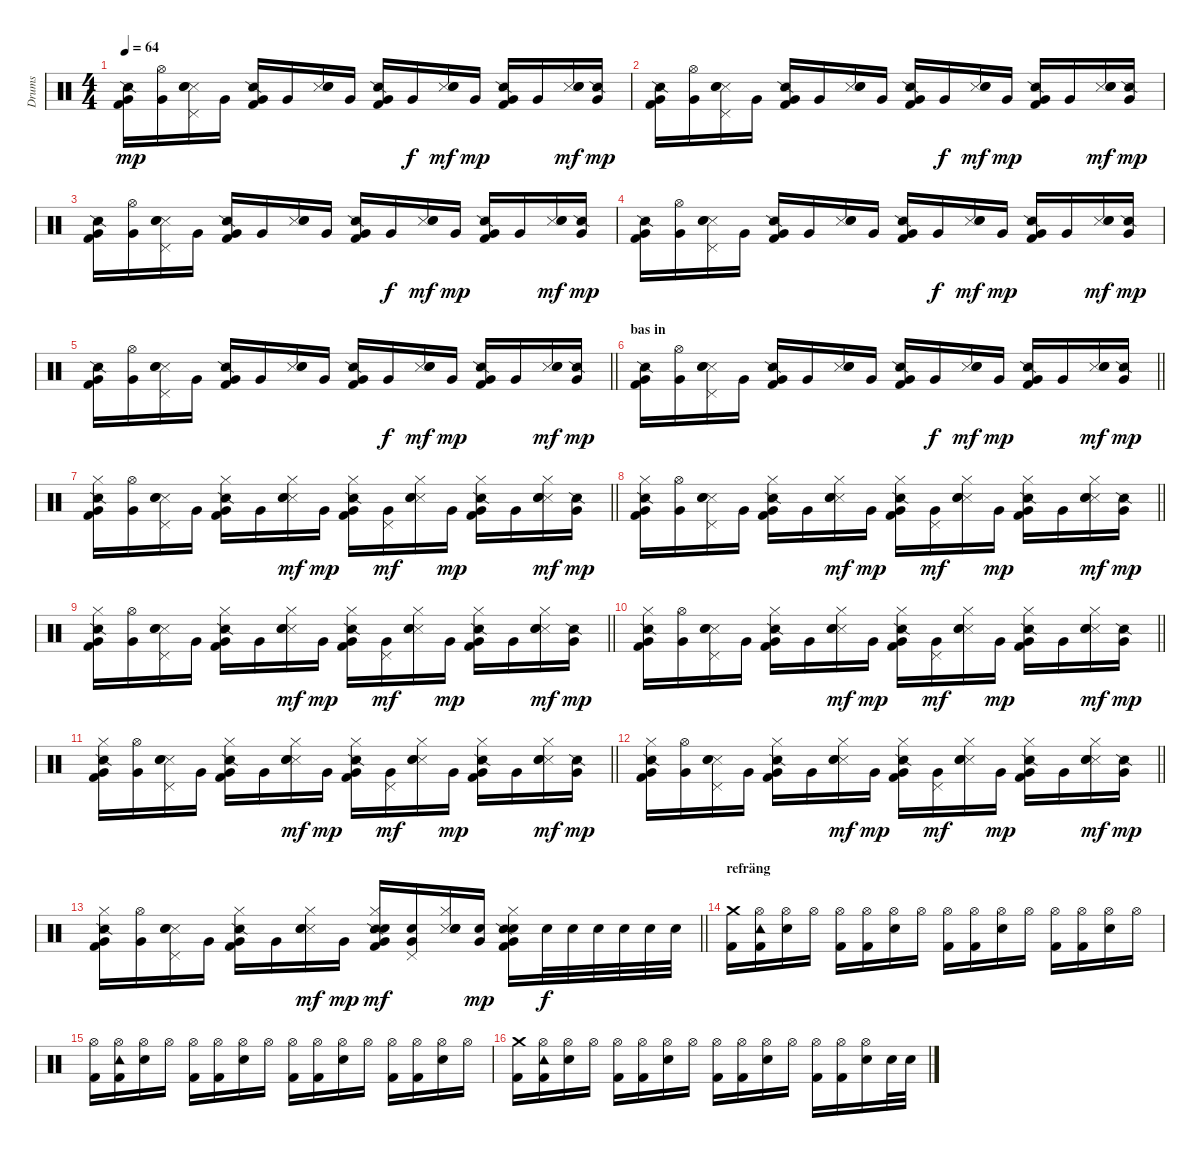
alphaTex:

\track ("Drums" "Drums") {instrument percussion}
\staff {score}
\articulation defaults
\ts (4 4)
\tempo 64
\clef neutral
\ks c
("Snare (side stick) 2" "Very Low Tom (hit)" "Kick (hit) 2").16{dy mp} ("Hi-Hat (open)" "Very Low Tom (hit)").16 ("Metronome (hit)" "Snare (hit) 2" "Hand Clap (hit)" "Pedal Hi-Hat (hit)").16 "Very Low Tom (hit)".16 ("Snare (side stick) 2" "Very Low Tom (hit)" "Kick (hit) 2").16 "Very Low Tom (hit)".16 ("Metronome (hit)" "Hand Clap (hit)" "Snare (hit) 2").16 "Very Low Tom (hit)".16 ("Snare (side stick) 2" "Very Low Tom (hit)" "Kick (hit) 2").16 "Very Low Tom (hit)".16{dy f} ("Metronome (hit)" "Hand Clap (hit)" "Snare (hit) 2").16{dy mf} "Very Low Tom (hit)".16{dy mp} ("Snare (side stick) 2" "Very Low Tom (hit)" "Kick (hit) 2").16 "Very Low Tom (hit)".16 ("Metronome (hit)" "Hand Clap (hit)" "Snare (hit) 2").16{dy mf} ("Snare (side stick) 2" "Very Low Tom (hit)").16{dy mp} |
("Snare (side stick) 2" "Very Low Tom (hit)" "Kick (hit) 2").16 ("Hi-Hat (open)" "Very Low Tom (hit)").16 ("Metronome (hit)" "Snare (hit) 2" "Hand Clap (hit)" "Pedal Hi-Hat (hit)").16 "Very Low Tom (hit)".16 ("Snare (side stick) 2" "Very Low Tom (hit)" "Kick (hit) 2").16 "Very Low Tom (hit)".16 ("Metronome (hit)" "Hand Clap (hit)" "Snare (hit) 2").16 "Very Low Tom (hit)".16 ("Snare (side stick) 2" "Very Low Tom (hit)" "Kick (hit) 2").16 "Very Low Tom (hit)".16{dy f} ("Metronome (hit)" "Hand Clap (hit)" "Snare (hit) 2").16{dy mf} "Very Low Tom (hit)".16{dy mp} ("Snare (side stick) 2" "Very Low Tom (hit)" "Kick (hit) 2").16 "Very Low Tom (hit)".16 ("Metronome (hit)" "Hand Clap (hit)" "Snare (hit) 2").16{dy mf} ("Snare (side stick) 2" "Very Low Tom (hit)").16{dy mp} |
("Snare (side stick) 2" "Very Low Tom (hit)" "Kick (hit) 2").16 ("Hi-Hat (open)" "Very Low Tom (hit)").16 ("Metronome (hit)" "Snare (hit) 2" "Hand Clap (hit)" "Pedal Hi-Hat (hit)").16 "Very Low Tom (hit)".16 ("Snare (side stick) 2" "Very Low Tom (hit)" "Kick (hit) 2").16 "Very Low Tom (hit)".16 ("Metronome (hit)" "Hand Clap (hit)" "Snare (hit) 2").16 "Very Low Tom (hit)".16 ("Snare (side stick) 2" "Very Low Tom (hit)" "Kick (hit) 2").16 "Very Low Tom (hit)".16{dy f} ("Metronome (hit)" "Hand Clap (hit)" "Snare (hit) 2").16{dy mf} "Very Low Tom (hit)".16{dy mp} ("Snare (side stick) 2" "Very Low Tom (hit)" "Kick (hit) 2").16 "Very Low Tom (hit)".16 ("Metronome (hit)" "Hand Clap (hit)" "Snare (hit) 2").16{dy mf} ("Snare (side stick) 2" "Very Low Tom (hit)").16{dy mp} |
("Snare (side stick) 2" "Very Low Tom (hit)" "Kick (hit) 2").16 ("Hi-Hat (open)" "Very Low Tom (hit)").16 ("Metronome (hit)" "Snare (hit) 2" "Hand Clap (hit)" "Pedal Hi-Hat (hit)").16 "Very Low Tom (hit)".16 ("Snare (side stick) 2" "Very Low Tom (hit)" "Kick (hit) 2").16 "Very Low Tom (hit)".16 ("Metronome (hit)" "Hand Clap (hit)" "Snare (hit) 2").16 "Very Low Tom (hit)".16 ("Snare (side stick) 2" "Very Low Tom (hit)" "Kick (hit) 2").16 "Very Low Tom (hit)".16{dy f} ("Metronome (hit)" "Hand Clap (hit)" "Snare (hit) 2").16{dy mf} "Very Low Tom (hit)".16{dy mp} ("Snare (side stick) 2" "Very Low Tom (hit)" "Kick (hit) 2").16 "Very Low Tom (hit)".16 ("Metronome (hit)" "Hand Clap (hit)" "Snare (hit) 2").16{dy mf} ("Snare (side stick) 2" "Very Low Tom (hit)").16{dy mp} |
\barLineRight lightlight
("Snare (side stick) 2" "Very Low Tom (hit)" "Kick (hit) 2").16 ("Hi-Hat (open)" "Very Low Tom (hit)").16 ("Metronome (hit)" "Snare (hit) 2" "Hand Clap (hit)" "Pedal Hi-Hat (hit)").16 "Very Low Tom (hit)".16 ("Snare (side stick) 2" "Very Low Tom (hit)" "Kick (hit) 2").16 "Very Low Tom (hit)".16 ("Metronome (hit)" "Hand Clap (hit)" "Snare (hit) 2").16 "Very Low Tom (hit)".16 ("Snare (side stick) 2" "Very Low Tom (hit)" "Kick (hit) 2").16 "Very Low Tom (hit)".16{dy f} ("Metronome (hit)" "Hand Clap (hit)" "Snare (hit) 2").16{dy mf} "Very Low Tom (hit)".16{dy mp} ("Snare (side stick) 2" "Very Low Tom (hit)" "Kick (hit) 2").16 "Very Low Tom (hit)".16 ("Metronome (hit)" "Hand Clap (hit)" "Snare (hit) 2").16{dy mf} ("Snare (side stick) 2" "Very Low Tom (hit)").16{dy mp} |
\section ("" "bas in")
\barLineRight lightlight
("Snare (side stick) 2" "Very Low Tom (hit)" "Kick (hit) 2").16 ("Hi-Hat (open)" "Very Low Tom (hit)").16 ("Metronome (hit)" "Snare (hit) 2" "Hand Clap (hit)" "Pedal Hi-Hat (hit)").16 "Very Low Tom (hit)".16 ("Snare (side stick) 2" "Very Low Tom (hit)" "Kick (hit) 2").16 "Very Low Tom (hit)".16 ("Metronome (hit)" "Hand Clap (hit)" "Snare (hit) 2").16 "Very Low Tom (hit)".16 ("Snare (side stick) 2" "Very Low Tom (hit)" "Kick (hit) 2").16 "Very Low Tom (hit)".16{dy f} ("Metronome (hit)" "Hand Clap (hit)" "Snare (hit) 2").16{dy mf} "Very Low Tom (hit)".16{dy mp} ("Snare (side stick) 2" "Very Low Tom (hit)" "Kick (hit) 2").16 "Very Low Tom (hit)".16 ("Metronome (hit)" "Hand Clap (hit)" "Snare (hit) 2").16{dy mf} ("Snare (side stick) 2" "Very Low Tom (hit)").16{dy mp} |
\barLineRight lightlight
("Hi-Hat (closed)" "Snare (side stick) 2" "Very Low Tom (hit)" "Kick (hit) 2").16 ("Hi-Hat (open)" "Very Low Tom (hit)").16 ("Metronome (hit)" "Snare (hit) 2" "Hand Clap (hit)" "Pedal Hi-Hat (hit)").16 "Very Low Tom (hit)".16 ("Hi-Hat (closed)" "Snare (side stick) 2" "Very Low Tom (hit)" "Kick (hit) 2").16 "Very Low Tom (hit)".16 ("Metronome (hit)" "Hand Clap (hit)" "Snare (hit) 2" "Hi-Hat (closed)").16{dy mf} "Very Low Tom (hit)".16{dy mp} ("Hi-Hat (closed)" "Snare (side stick) 2" "Very Low Tom (hit)" "Kick (hit) 2").16 ("Pedal Hi-Hat (hit)" "Very Low Tom (hit)").16{dy mf} ("Metronome (hit)" "Hand Clap (hit)" "Snare (hit) 2" "Hi-Hat (closed)").16 "Very Low Tom (hit)".16{dy mp} ("Hi-Hat (closed)" "Snare (side stick) 2" "Very Low Tom (hit)" "Kick (hit) 2").16 "Very Low Tom (hit)".16 ("Metronome (hit)" "Hand Clap (hit)" "Snare (hit) 2" "Hi-Hat (closed)").16{dy mf} ("Snare (side stick) 2" "Very Low Tom (hit)").16{dy mp} |
\barLineRight lightlight
("Hi-Hat (closed)" "Snare (side stick) 2" "Very Low Tom (hit)" "Kick (hit) 2").16 ("Hi-Hat (open)" "Very Low Tom (hit)").16 ("Metronome (hit)" "Snare (hit) 2" "Hand Clap (hit)" "Pedal Hi-Hat (hit)").16 "Very Low Tom (hit)".16 ("Hi-Hat (closed)" "Snare (side stick) 2" "Very Low Tom (hit)" "Kick (hit) 2").16 "Very Low Tom (hit)".16 ("Metronome (hit)" "Hand Clap (hit)" "Snare (hit) 2" "Hi-Hat (closed)").16{dy mf} "Very Low Tom (hit)".16{dy mp} ("Hi-Hat (closed)" "Snare (side stick) 2" "Very Low Tom (hit)" "Kick (hit) 2").16 ("Pedal Hi-Hat (hit)" "Very Low Tom (hit)").16{dy mf} ("Metronome (hit)" "Hand Clap (hit)" "Snare (hit) 2" "Hi-Hat (closed)").16 "Very Low Tom (hit)".16{dy mp} ("Hi-Hat (closed)" "Snare (side stick) 2" "Very Low Tom (hit)" "Kick (hit) 2").16 "Very Low Tom (hit)".16 ("Metronome (hit)" "Hand Clap (hit)" "Snare (hit) 2" "Hi-Hat (closed)").16{dy mf} ("Snare (side stick) 2" "Very Low Tom (hit)").16{dy mp} |
\barLineRight lightlight
("Hi-Hat (closed)" "Snare (side stick) 2" "Very Low Tom (hit)" "Kick (hit) 2").16 ("Hi-Hat (open)" "Very Low Tom (hit)").16 ("Metronome (hit)" "Snare (hit) 2" "Hand Clap (hit)" "Pedal Hi-Hat (hit)").16 "Very Low Tom (hit)".16 ("Hi-Hat (closed)" "Snare (side stick) 2" "Very Low Tom (hit)" "Kick (hit) 2").16 "Very Low Tom (hit)".16 ("Metronome (hit)" "Hand Clap (hit)" "Snare (hit) 2" "Hi-Hat (closed)").16{dy mf} "Very Low Tom (hit)".16{dy mp} ("Hi-Hat (closed)" "Snare (side stick) 2" "Very Low Tom (hit)" "Kick (hit) 2").16 ("Pedal Hi-Hat (hit)" "Very Low Tom (hit)").16{dy mf} ("Metronome (hit)" "Hand Clap (hit)" "Snare (hit) 2" "Hi-Hat (closed)").16 "Very Low Tom (hit)".16{dy mp} ("Hi-Hat (closed)" "Snare (side stick) 2" "Very Low Tom (hit)" "Kick (hit) 2").16 "Very Low Tom (hit)".16 ("Metronome (hit)" "Hand Clap (hit)" "Snare (hit) 2" "Hi-Hat (closed)").16{dy mf} ("Snare (side stick) 2" "Very Low Tom (hit)").16{dy mp} |
\barLineRight lightlight
("Hi-Hat (closed)" "Snare (side stick) 2" "Very Low Tom (hit)" "Kick (hit) 2").16 ("Hi-Hat (open)" "Very Low Tom (hit)").16 ("Metronome (hit)" "Snare (hit) 2" "Hand Clap (hit)" "Pedal Hi-Hat (hit)").16 "Very Low Tom (hit)".16 ("Hi-Hat (closed)" "Snare (side stick) 2" "Very Low Tom (hit)" "Kick (hit) 2").16 "Very Low Tom (hit)".16 ("Metronome (hit)" "Hand Clap (hit)" "Snare (hit) 2" "Hi-Hat (closed)").16{dy mf} "Very Low Tom (hit)".16{dy mp} ("Hi-Hat (closed)" "Snare (side stick) 2" "Very Low Tom (hit)" "Kick (hit) 2").16 ("Pedal Hi-Hat (hit)" "Very Low Tom (hit)").16{dy mf} ("Metronome (hit)" "Hand Clap (hit)" "Snare (hit) 2" "Hi-Hat (closed)").16 "Very Low Tom (hit)".16{dy mp} ("Hi-Hat (closed)" "Snare (side stick) 2" "Very Low Tom (hit)" "Kick (hit) 2").16 "Very Low Tom (hit)".16 ("Metronome (hit)" "Hand Clap (hit)" "Snare (hit) 2" "Hi-Hat (closed)").16{dy mf} ("Snare (side stick) 2" "Very Low Tom (hit)").16{dy mp} |
\barLineRight lightlight
("Hi-Hat (closed)" "Snare (side stick) 2" "Very Low Tom (hit)" "Kick (hit) 2").16 ("Hi-Hat (open)" "Very Low Tom (hit)").16 ("Metronome (hit)" "Snare (hit) 2" "Hand Clap (hit)" "Pedal Hi-Hat (hit)").16 "Very Low Tom (hit)".16 ("Hi-Hat (closed)" "Snare (side stick) 2" "Very Low Tom (hit)" "Kick (hit) 2").16 "Very Low Tom (hit)".16 ("Metronome (hit)" "Hand Clap (hit)" "Snare (hit) 2" "Hi-Hat (closed)").16{dy mf} "Very Low Tom (hit)".16{dy mp} ("Hi-Hat (closed)" "Snare (side stick) 2" "Very Low Tom (hit)" "Kick (hit) 2").16 ("Pedal Hi-Hat (hit)" "Very Low Tom (hit)").16{dy mf} ("Metronome (hit)" "Hand Clap (hit)" "Snare (hit) 2" "Hi-Hat (closed)").16 "Very Low Tom (hit)".16{dy mp} ("Hi-Hat (closed)" "Snare (side stick) 2" "Very Low Tom (hit)" "Kick (hit) 2").16 "Very Low Tom (hit)".16 ("Metronome (hit)" "Hand Clap (hit)" "Snare (hit) 2" "Hi-Hat (closed)").16{dy mf} ("Snare (side stick) 2" "Very Low Tom (hit)").16{dy mp} |
\barLineRight lightlight
("Hi-Hat (closed)" "Snare (side stick) 2" "Very Low Tom (hit)" "Kick (hit) 2").16 ("Hi-Hat (open)" "Very Low Tom (hit)").16 ("Metronome (hit)" "Snare (hit) 2" "Hand Clap (hit)" "Pedal Hi-Hat (hit)").16 "Very Low Tom (hit)".16 ("Hi-Hat (closed)" "Snare (side stick) 2" "Very Low Tom (hit)" "Kick (hit) 2").16 "Very Low Tom (hit)".16 ("Metronome (hit)" "Hand Clap (hit)" "Snare (hit) 2" "Hi-Hat (closed)").16{dy mf} "Very Low Tom (hit)".16{dy mp} ("Hi-Hat (closed)" "Snare (side stick) 2" "Very Low Tom (hit)" "Kick (hit) 2").16 ("Pedal Hi-Hat (hit)" "Very Low Tom (hit)").16{dy mf} ("Metronome (hit)" "Hand Clap (hit)" "Snare (hit) 2" "Hi-Hat (closed)").16 "Very Low Tom (hit)".16{dy mp} ("Hi-Hat (closed)" "Snare (side stick) 2" "Very Low Tom (hit)" "Kick (hit) 2").16 "Very Low Tom (hit)".16 ("Metronome (hit)" "Hand Clap (hit)" "Snare (hit) 2" "Hi-Hat (closed)").16{dy mf} ("Snare (side stick) 2" "Very Low Tom (hit)").16{dy mp} |
\barLineRight lightlight
("Hi-Hat (closed)" "Snare (side stick) 2" "Very Low Tom (hit)" "Kick (hit) 2").16 ("Hi-Hat (open)" "Very Low Tom (hit)").16 ("Metronome (hit)" "Snare (hit) 2" "Hand Clap (hit)" "Pedal Hi-Hat (hit)").16 "Very Low Tom (hit)".16 ("Hi-Hat (closed)" "Snare (side stick) 2" "Very Low Tom (hit)" "Kick (hit) 2").16 "Very Low Tom (hit)".16 ("Metronome (hit)" "Hand Clap (hit)" "Snare (hit) 2" "Hi-Hat (closed)").16{dy mf} "Very Low Tom (hit)".16{dy mp} ("Hi-Hat (closed)" "Snare (side stick) 2" "Very Low Tom (hit)" "Electric Snare (hit)" "Kick (hit) 2").16{dy mf} ("Pedal Hi-Hat (hit)" "Very Low Tom (hit)" "Electric Snare (hit)").16 ("Metronome (hit)" "Hand Clap (hit)" "Snare (hit) 2" "Electric Snare (hit)" "Hi-Hat (closed)").16 ("Electric Snare (hit)" "Very Low Tom (hit)").16{dy mp} ("Hi-Hat (closed)" "Electric Snare (hit)" "Snare (side stick) 2" "Very Low Tom (hit)" "Kick (hit) 2").16 "Electric Snare (hit)".32{dy f} "Electric Snare (hit)".32 "Electric Snare (hit)".32 "Electric Snare (hit)".32 "Electric Snare (hit)".32 "Electric Snare (hit)".32 |
\section ("" "refräng")
("Crash medium (hit)" "Kick (hit) 2").16 ("Hi-Hat (open)" "Tambourine (hit)" "Kick (hit) 2").16 ("Hi-Hat (open)" "Electric Snare (hit)").16 "Hi-Hat (open)".16 ("Hi-Hat (open)" "Kick (hit) 2").16 ("Hi-Hat (open)" "Kick (hit) 2").16 ("Hi-Hat (open)" "Electric Snare (hit)").16 "Hi-Hat (open)".16 ("Hi-Hat (open)" "Kick (hit) 2").16 ("Hi-Hat (open)" "Kick (hit) 2").16 ("Hi-Hat (open)" "Electric Snare (hit)").16 "Hi-Hat (open)".16 ("Hi-Hat (open)" "Kick (hit) 2").16 ("Hi-Hat (open)" "Kick (hit) 2").16 ("Hi-Hat (open)" "Electric Snare (hit)").16 "Hi-Hat (open)".16 |
("Hi-Hat (open)" "Kick (hit) 2").16 ("Hi-Hat (open)" "Tambourine (hit)" "Kick (hit) 2").16 ("Hi-Hat (open)" "Electric Snare (hit)").16 "Hi-Hat (open)".16 ("Hi-Hat (open)" "Kick (hit) 2").16 ("Hi-Hat (open)" "Kick (hit) 2").16 ("Hi-Hat (open)" "Electric Snare (hit)").16 "Hi-Hat (open)".16 ("Hi-Hat (open)" "Kick (hit) 2").16 ("Hi-Hat (open)" "Kick (hit) 2").16 ("Hi-Hat (open)" "Electric Snare (hit)").16 "Hi-Hat (open)".16 ("Hi-Hat (open)" "Kick (hit) 2").16 ("Hi-Hat (open)" "Kick (hit) 2").16 ("Hi-Hat (open)" "Electric Snare (hit)").16 "Hi-Hat (open)".16 |
("Crash medium (hit)" "Kick (hit) 2").16 ("Hi-Hat (open)" "Tambourine (hit)" "Kick (hit) 2").16 ("Hi-Hat (open)" "Electric Snare (hit)").16 "Hi-Hat (open)".16 ("Hi-Hat (open)" "Kick (hit) 2").16 ("Hi-Hat (open)" "Kick (hit) 2").16 ("Hi-Hat (open)" "Electric Snare (hit)").16 "Hi-Hat (open)".16 ("Hi-Hat (open)" "Kick (hit) 2").16 ("Hi-Hat (open)" "Kick (hit) 2").16 ("Hi-Hat (open)" "Electric Snare (hit)").16 "Hi-Hat (open)".16 ("Hi-Hat (open)" "Kick (hit) 2").16 ("Hi-Hat (open)" "Kick (hit) 2").16 ("Hi-Hat (open)" "Electric Snare (hit)").16 "Electric Snare (hit)".32 "Electric Snare (hit)".32
